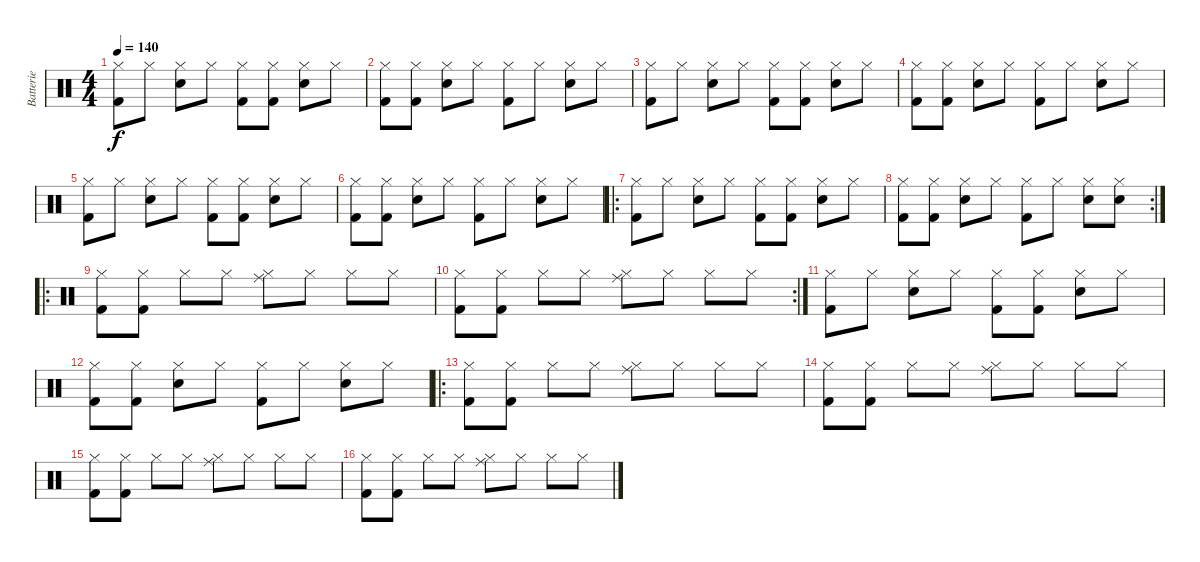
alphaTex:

\track ("Batterie" "Batterie") {instrument percussion}
\staff {score}
\articulation defaults
\ts (4 4)
\tempo 140
\clef neutral
\ks c
("Kick (hit) 2" "Hi-Hat (closed)").8{dy f} "Hi-Hat (closed)".8 ("Electric Snare (hit)" "Hi-Hat (closed)").8 "Hi-Hat (closed)".8 ("Kick (hit) 2" "Hi-Hat (closed)").8 ("Kick (hit) 2" "Hi-Hat (closed)").8 ("Electric Snare (hit)" "Hi-Hat (closed)").8 "Hi-Hat (closed)".8 |
("Kick (hit) 2" "Hi-Hat (closed)").8 ("Kick (hit) 2" "Hi-Hat (closed)").8 ("Electric Snare (hit)" "Hi-Hat (closed)").8 "Hi-Hat (closed)".8 ("Kick (hit) 2" "Hi-Hat (closed)").8 "Hi-Hat (closed)".8 ("Electric Snare (hit)" "Hi-Hat (closed)").8 "Hi-Hat (closed)".8 |
("Kick (hit) 2" "Hi-Hat (closed)").8 "Hi-Hat (closed)".8 ("Electric Snare (hit)" "Hi-Hat (closed)").8 "Hi-Hat (closed)".8 ("Kick (hit) 2" "Hi-Hat (closed)").8 ("Kick (hit) 2" "Hi-Hat (closed)").8 ("Electric Snare (hit)" "Hi-Hat (closed)").8 "Hi-Hat (closed)".8 |
("Kick (hit) 2" "Hi-Hat (closed)").8 ("Kick (hit) 2" "Hi-Hat (closed)").8 ("Electric Snare (hit)" "Hi-Hat (closed)").8 "Hi-Hat (closed)".8 ("Kick (hit) 2" "Hi-Hat (closed)").8 "Hi-Hat (closed)".8 ("Electric Snare (hit)" "Hi-Hat (closed)").8 "Hi-Hat (closed)".8 |
("Kick (hit) 2" "Hi-Hat (closed)").8 "Hi-Hat (closed)".8 ("Electric Snare (hit)" "Hi-Hat (closed)").8 "Hi-Hat (closed)".8 ("Kick (hit) 2" "Hi-Hat (closed)").8 ("Kick (hit) 2" "Hi-Hat (closed)").8 ("Electric Snare (hit)" "Hi-Hat (closed)").8 "Hi-Hat (closed)".8 |
("Kick (hit) 2" "Hi-Hat (closed)").8 ("Kick (hit) 2" "Hi-Hat (closed)").8 ("Electric Snare (hit)" "Hi-Hat (closed)").8 "Hi-Hat (closed)".8 ("Kick (hit) 2" "Hi-Hat (closed)").8 "Hi-Hat (closed)".8 ("Electric Snare (hit)" "Hi-Hat (closed)").8 "Hi-Hat (closed)".8 |
\ro
("Kick (hit) 2" "Hi-Hat (closed)").8 "Hi-Hat (closed)".8 ("Electric Snare (hit)" "Hi-Hat (closed)").8 "Hi-Hat (closed)".8 ("Kick (hit) 2" "Hi-Hat (closed)").8 ("Kick (hit) 2" "Hi-Hat (closed)").8 ("Electric Snare (hit)" "Hi-Hat (closed)").8 "Hi-Hat (closed)".8 |
\rc 2
("Kick (hit) 2" "Hi-Hat (closed)").8 ("Kick (hit) 2" "Hi-Hat (closed)").8 ("Electric Snare (hit)" "Hi-Hat (closed)").8 "Hi-Hat (closed)".8 ("Kick (hit) 2" "Hi-Hat (closed)").8 "Hi-Hat (closed)".8 ("Electric Snare (hit)" "Hi-Hat (closed)").8 ("Electric Snare (hit)" "Hi-Hat (closed)").8 |
\ro
("Kick (hit) 2" "Hi-Hat (closed)").8 ("Kick (hit) 2" "Hi-Hat (closed)").8 "Hi-Hat (closed)".8 "Hi-Hat (closed)".8 ("Ride (middle)" "Hi-Hat (closed)").8 "Hi-Hat (closed)".8 "Hi-Hat (closed)".8 "Hi-Hat (closed)".8 |
\rc 2
("Kick (hit) 2" "Hi-Hat (closed)").8 ("Kick (hit) 2" "Hi-Hat (closed)").8 "Hi-Hat (closed)".8 "Hi-Hat (closed)".8 ("Ride (middle)" "Hi-Hat (closed)").8 "Hi-Hat (closed)".8 "Hi-Hat (closed)".8 "Hi-Hat (closed)".8 |
("Kick (hit) 2" "Hi-Hat (closed)").8 "Hi-Hat (closed)".8 ("Electric Snare (hit)" "Hi-Hat (closed)").8 "Hi-Hat (closed)".8 ("Kick (hit) 2" "Hi-Hat (closed)").8 ("Kick (hit) 2" "Hi-Hat (closed)").8 ("Electric Snare (hit)" "Hi-Hat (closed)").8 "Hi-Hat (closed)".8 |
("Kick (hit) 2" "Hi-Hat (closed)").8 ("Kick (hit) 2" "Hi-Hat (closed)").8 ("Electric Snare (hit)" "Hi-Hat (closed)").8 "Hi-Hat (closed)".8 ("Kick (hit) 2" "Hi-Hat (closed)").8 "Hi-Hat (closed)".8 ("Electric Snare (hit)" "Hi-Hat (closed)").8 "Hi-Hat (closed)".8 |
\ro
("Kick (hit) 2" "Hi-Hat (closed)").8 ("Kick (hit) 2" "Hi-Hat (closed)").8 "Hi-Hat (closed)".8 "Hi-Hat (closed)".8 ("Ride (middle)" "Hi-Hat (closed)").8 "Hi-Hat (closed)".8 "Hi-Hat (closed)".8 "Hi-Hat (closed)".8 |
("Kick (hit) 2" "Hi-Hat (closed)").8 ("Kick (hit) 2" "Hi-Hat (closed)").8 "Hi-Hat (closed)".8 "Hi-Hat (closed)".8 ("Ride (middle)" "Hi-Hat (closed)").8 "Hi-Hat (closed)".8 "Hi-Hat (closed)".8 "Hi-Hat (closed)".8 |
("Kick (hit) 2" "Hi-Hat (closed)").8 ("Kick (hit) 2" "Hi-Hat (closed)").8 "Hi-Hat (closed)".8 "Hi-Hat (closed)".8 ("Ride (middle)" "Hi-Hat (closed)").8 "Hi-Hat (closed)".8 "Hi-Hat (closed)".8 "Hi-Hat (closed)".8 |
("Kick (hit) 2" "Hi-Hat (closed)").8 ("Kick (hit) 2" "Hi-Hat (closed)").8 "Hi-Hat (closed)".8 "Hi-Hat (closed)".8 ("Ride (middle)" "Hi-Hat (closed)").8 "Hi-Hat (closed)".8 "Hi-Hat (closed)".8 "Hi-Hat (closed)".8
